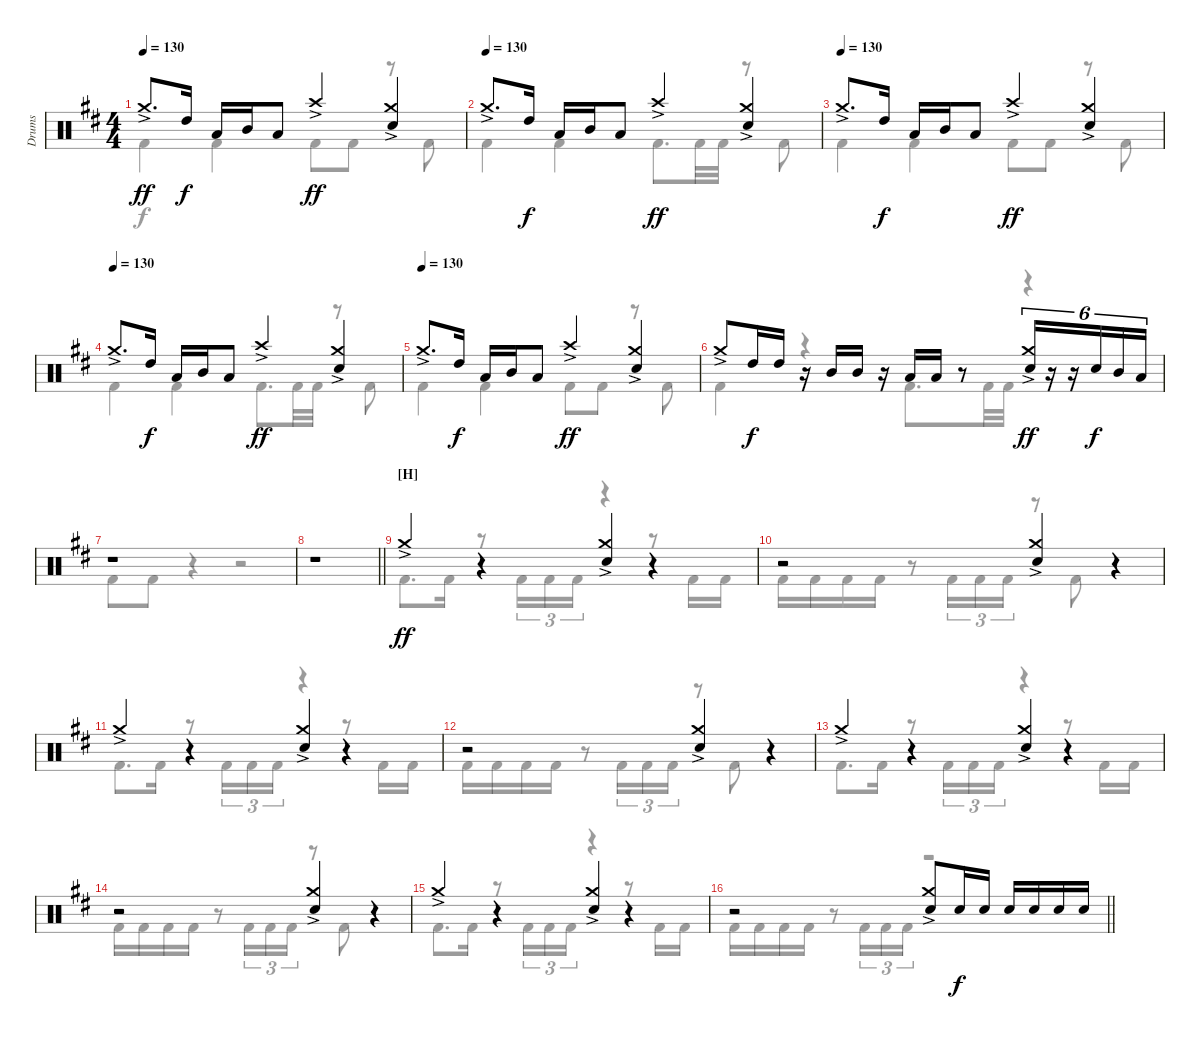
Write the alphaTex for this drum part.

\track ("Drums" "Drums") {instrument percussion}
\staff {score}
\articulation defaults
\voice
\ts (4 4)
\tempo 130
\clef neutral
\ks bminor "Crash medium (hit)"{ac}.8{d dy ff} "High Tom (hit)".16{dy f} "Low Tom (hit)".16 "Mid Tom (hit)".16 "Low Tom (hit)".8 "Crash high (hit)"{ac}.4{dy ff}
("Crash medium (hit)"{ac} "Snare (hit) 2").4 |
\tempo (130)
"Crash medium (hit)"{ac}.8{d} "High Tom (hit)".16{dy f} "Low Tom (hit)".16 "Mid Tom (hit)".16 "Low Tom (hit)".8 "Crash high (hit)"{ac}.4{dy ff} ("Crash medium (hit)"{ac} "Snare (hit) 2").4 |
\tempo (130)
"Crash medium (hit)"{ac}.8{d} "High Tom (hit)".16{dy f} "Low Tom (hit)".16 "Mid Tom (hit)".16 "Low Tom (hit)".8 "Crash high (hit)"{ac}.4{dy ff} ("Crash medium (hit)"{ac} "Snare (hit) 2").4 |
\tempo (130)
"Crash medium (hit)"{ac}.8{d} "High Tom (hit)".16{dy f} "Low Tom (hit)".16 "Mid Tom (hit)".16 "Low Tom (hit)".8 "Crash high (hit)"{ac}.4{dy ff} ("Crash medium (hit)"{ac} "Snare (hit) 2").4 |
\tempo (130)
"Crash medium (hit)"{ac}.8{d} "High Tom (hit)".16{dy f} "Low Tom (hit)".16 "Mid Tom (hit)".16 "Low Tom (hit)".8 "Crash high (hit)"{ac}.4{dy ff} ("Crash medium (hit)"{ac} "Snare (hit) 2").4 |
"Crash medium (hit)"{ac}.8 "High Tom (hit)".16{dy f} "High Tom (hit)".16 r.16 "Mid Tom (hit)".16 "Mid Tom (hit)".16 r.16 "Low Tom (hit)".16 "Low Tom (hit)".16 r.8 ("Crash medium (hit)"{ac} "Snare (hit) 2").16{tu (6 4) dy ff} r.16{tu (6 4)} r.16{tu (6 4)} "Snare (hit) 2".16{tu (6 4) dy f} "Mid Tom (hit)".16{tu (6 4)} "Low Tom (hit)".16{tu (6 4)} |
r.1 |
\barLineRight lightlight
r.1 |
\section ("" "[H]")
"Crash medium (hit)"{ac}.4{dy ff} r.4 ("Crash medium (hit)"{ac} "Snare (hit) 2").4 r.4 |
r.2 ("Crash medium (hit)"{ac} "Snare (hit) 2").4 r.4 |
"Crash medium (hit)"{ac}.4 r.4 ("Crash medium (hit)"{ac} "Snare (hit) 2").4 r.4 |
r.2 ("Crash medium (hit)"{ac} "Snare (hit) 2").4 r.4 |
"Crash medium (hit)"{ac}.4 r.4 ("Crash medium (hit)"{ac} "Snare (hit) 2").4 r.4 |
r.2 ("Crash medium (hit)"{ac} "Snare (hit) 2").4 r.4 |
"Crash medium (hit)"{ac}.4 r.4 ("Crash medium (hit)"{ac} "Snare (hit) 2").4 r.4 |
\barLineRight lightlight
r.2 ("Crash medium (hit)"{ac} "Snare (hit) 2").8 "Snare (hit) 2".16{dy f} "Snare (hit) 2".16 "Snare (hit) 2".16 "Snare (hit) 2".16 "Snare (hit) 2".16 "Snare (hit) 2".16
\voice
\clef neutral
\ottava regular
\simile none
\ks bminor "Kick (hit) 2".4{dy f} "Kick (hit) 2".4 "Kick (hit) 2".8 "Kick (hit) 2".8
r.8 "Kick (hit) 2".8 |
"Kick (hit) 2".4 "Kick (hit) 2".4 "Kick (hit) 2".8{d} "Kick (hit) 2".32 "Kick (hit) 2".32 r.8 "Kick (hit) 2".8 |
"Kick (hit) 2".4 "Kick (hit) 2".4 "Kick (hit) 2".8 "Kick (hit) 2".8 r.8 "Kick (hit) 2".8 |
"Kick (hit) 2".4 "Kick (hit) 2".4 "Kick (hit) 2".8{d} "Kick (hit) 2".32 "Kick (hit) 2".32 r.8 "Kick (hit) 2".8 |
"Kick (hit) 2".4 "Kick (hit) 2".4 "Kick (hit) 2".8 "Kick (hit) 2".8 r.8 "Kick (hit) 2".8 |
"Kick (hit) 2".4 r.4 "Kick (hit) 2".8{d} "Kick (hit) 2".32 "Kick (hit) 2".32 r.4 |
"Kick (hit) 2".8 "Kick (hit) 2".8 r.4 r.2 |
\barLineRight lightlight
r.1 |
"Kick (hit) 2".8{d} "Kick (hit) 2".16 r.8 "Kick (hit) 2".16{tu (3 2)} "Kick (hit) 2".16{tu (3 2)} "Kick (hit) 2".16{tu (3 2)} r.4 r.8 "Kick (hit) 2".16 "Kick (hit) 2".16 |
"Kick (hit) 2".16 "Kick (hit) 2".16 "Kick (hit) 2".16 "Kick (hit) 2".16 r.8 "Kick (hit) 2".16{tu (3 2)} "Kick (hit) 2".16{tu (3 2)} "Kick (hit) 2".16{tu (3 2)} r.8 "Kick (hit) 2".8 r.4 |
"Kick (hit) 2".8{d} "Kick (hit) 2".16 r.8 "Kick (hit) 2".16{tu (3 2)} "Kick (hit) 2".16{tu (3 2)} "Kick (hit) 2".16{tu (3 2)} r.4 r.8 "Kick (hit) 2".16 "Kick (hit) 2".16 |
"Kick (hit) 2".16 "Kick (hit) 2".16 "Kick (hit) 2".16 "Kick (hit) 2".16 r.8 "Kick (hit) 2".16{tu (3 2)} "Kick (hit) 2".16{tu (3 2)} "Kick (hit) 2".16{tu (3 2)} r.8 "Kick (hit) 2".8 r.4 |
"Kick (hit) 2".8{d} "Kick (hit) 2".16 r.8 "Kick (hit) 2".16{tu (3 2)} "Kick (hit) 2".16{tu (3 2)} "Kick (hit) 2".16{tu (3 2)} r.4 r.8 "Kick (hit) 2".16 "Kick (hit) 2".16 |
"Kick (hit) 2".16 "Kick (hit) 2".16 "Kick (hit) 2".16 "Kick (hit) 2".16 r.8 "Kick (hit) 2".16{tu (3 2)} "Kick (hit) 2".16{tu (3 2)} "Kick (hit) 2".16{tu (3 2)} r.8 "Kick (hit) 2".8 r.4 |
"Kick (hit) 2".8{d} "Kick (hit) 2".16 r.8 "Kick (hit) 2".16{tu (3 2)} "Kick (hit) 2".16{tu (3 2)} "Kick (hit) 2".16{tu (3 2)} r.4 r.8 "Kick (hit) 2".16 "Kick (hit) 2".16 |
\barLineRight lightlight "Kick (hit) 2".16 "Kick (hit) 2".16 "Kick (hit) 2".16 "Kick (hit) 2".16
r.8 "Kick (hit) 2".16{tu (3 2)} "Kick (hit) 2".16{tu (3 2)} "Kick (hit) 2".16{tu (3 2)} r.2
